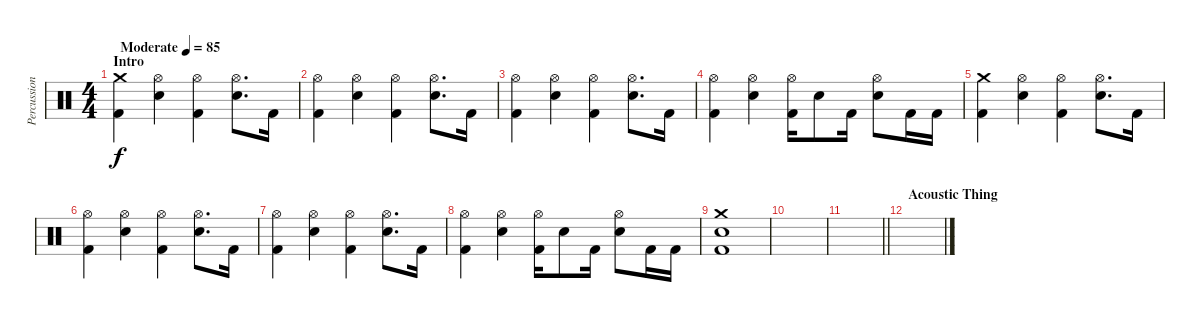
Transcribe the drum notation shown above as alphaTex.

\track ("Percussion" "Percussion") {instrument percussion}
\staff {score}
\articulation defaults
\ts (4 4)
\section ("" "Intro")
\tempo (85 "Moderate")
\clef neutral
\ks c
("Crash medium (hit)" "Kick (hit) 2").4{dy f} ("Hi-Hat (open)" "Electric Snare (hit)").4 ("Hi-Hat (open)" "Kick (hit) 2").4 ("Hi-Hat (open)" "Electric Snare (hit)").8{d} "Kick (hit) 2".16 |
("Hi-Hat (open)" "Kick (hit) 2").4 ("Hi-Hat (open)" "Electric Snare (hit)").4 ("Hi-Hat (open)" "Kick (hit) 2").4 ("Hi-Hat (open)" "Electric Snare (hit)").8{d} "Kick (hit) 2".16 |
("Hi-Hat (open)" "Kick (hit) 2").4 ("Hi-Hat (open)" "Electric Snare (hit)").4 ("Hi-Hat (open)" "Kick (hit) 2").4 ("Hi-Hat (open)" "Electric Snare (hit)").8{d} "Kick (hit) 2".16 |
("Hi-Hat (open)" "Kick (hit) 2").4 ("Hi-Hat (open)" "Electric Snare (hit)").4 ("Hi-Hat (open)" "Kick (hit) 2").16 "Electric Snare (hit)".8 "Kick (hit) 2".16 ("Hi-Hat (open)" "Electric Snare (hit)").8 "Kick (hit) 2".16 "Kick (hit) 2".16 |
("Crash medium (hit)" "Kick (hit) 2").4 ("Hi-Hat (open)" "Electric Snare (hit)").4 ("Hi-Hat (open)" "Kick (hit) 2").4 ("Hi-Hat (open)" "Electric Snare (hit)").8{d} "Kick (hit) 2".16 |
("Hi-Hat (open)" "Kick (hit) 2").4 ("Hi-Hat (open)" "Electric Snare (hit)").4 ("Hi-Hat (open)" "Kick (hit) 2").4 ("Hi-Hat (open)" "Electric Snare (hit)").8{d} "Kick (hit) 2".16 |
("Hi-Hat (open)" "Kick (hit) 2").4 ("Hi-Hat (open)" "Electric Snare (hit)").4 ("Hi-Hat (open)" "Kick (hit) 2").4 ("Hi-Hat (open)" "Electric Snare (hit)").8{d} "Kick (hit) 2".16 |
("Hi-Hat (open)" "Kick (hit) 2").4 ("Hi-Hat (open)" "Electric Snare (hit)").4 ("Hi-Hat (open)" "Kick (hit) 2").16 "Electric Snare (hit)".8 "Kick (hit) 2".16 ("Hi-Hat (open)" "Electric Snare (hit)").8 "Kick (hit) 2".16 "Kick (hit) 2".16 |
("Crash medium (hit)" "Electric Snare (hit)" "Kick (hit) 2").1 |
|
\barLineRight lightlight
|
\section ("" "Acoustic Thing")
